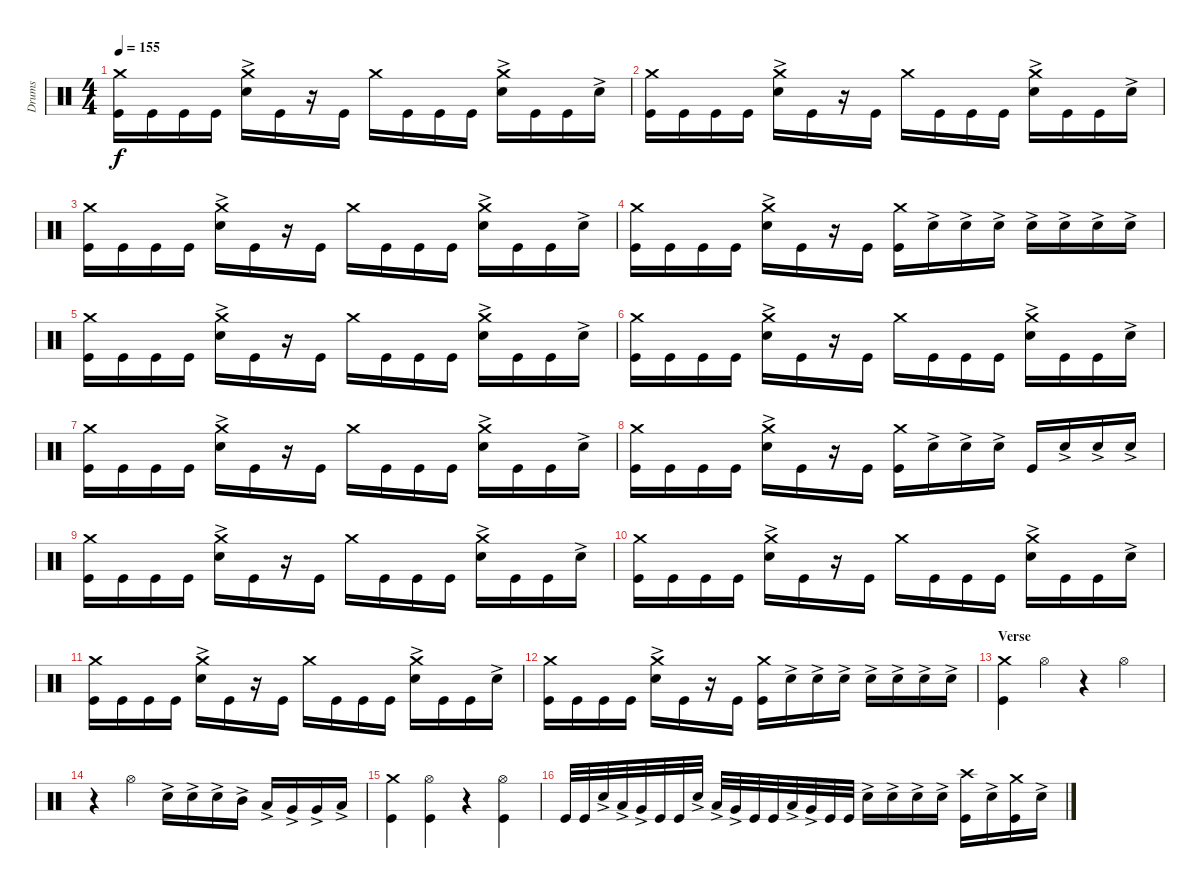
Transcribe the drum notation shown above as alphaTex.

\track ("Drums" "Drums") {instrument percussion}
\staff {score}
\articulation defaults
\ts (4 4)
\tempo 155
\clef neutral
\ks c
("Crash medium (hit)" "Kick (hit)").16{dy f} "Kick (hit)".16 "Kick (hit)".16 "Kick (hit)".16 ("Crash medium (hit)" "Snare (hit) 2"{ac}).16 "Kick (hit)".16 r.16 "Kick (hit)".16 "Crash medium (hit)".16 "Kick (hit)".16 "Kick (hit)".16 "Kick (hit)".16 ("Crash medium (hit)" "Snare (hit) 2"{ac}).16 "Kick (hit)".16 "Kick (hit)".16 "Snare (hit) 2"{ac}.16 |
("Crash medium (hit)" "Kick (hit)").16 "Kick (hit)".16 "Kick (hit)".16 "Kick (hit)".16 ("Crash medium (hit)" "Snare (hit) 2"{ac}).16 "Kick (hit)".16 r.16 "Kick (hit)".16 "Crash medium (hit)".16 "Kick (hit)".16 "Kick (hit)".16 "Kick (hit)".16 ("Crash medium (hit)" "Snare (hit) 2"{ac}).16 "Kick (hit)".16 "Kick (hit)".16 "Snare (hit) 2"{ac}.16 |
("Crash medium (hit)" "Kick (hit)").16 "Kick (hit)".16 "Kick (hit)".16 "Kick (hit)".16 ("Crash medium (hit)" "Snare (hit) 2"{ac}).16 "Kick (hit)".16 r.16 "Kick (hit)".16 "Crash medium (hit)".16 "Kick (hit)".16 "Kick (hit)".16 "Kick (hit)".16 ("Crash medium (hit)" "Snare (hit) 2"{ac}).16 "Kick (hit)".16 "Kick (hit)".16 "Snare (hit) 2"{ac}.16 |
("Crash medium (hit)" "Kick (hit)").16 "Kick (hit)".16 "Kick (hit)".16 "Kick (hit)".16 ("Crash medium (hit)" "Snare (hit) 2"{ac}).16 "Kick (hit)".16 r.16 "Kick (hit)".16 ("Kick (hit)" "Crash medium (hit)").16 "Snare (hit) 2"{ac}.16 "Snare (hit) 2"{ac}.16 "Snare (hit) 2"{ac}.16 "Snare (hit) 2"{ac}.16 "Snare (hit) 2"{ac}.16 "Snare (hit) 2"{ac}.16 "Snare (hit) 2"{ac}.16 |
("Crash medium (hit)" "Kick (hit)").16 "Kick (hit)".16 "Kick (hit)".16 "Kick (hit)".16 ("Crash medium (hit)" "Snare (hit) 2"{ac}).16 "Kick (hit)".16 r.16 "Kick (hit)".16 "Crash medium (hit)".16 "Kick (hit)".16 "Kick (hit)".16 "Kick (hit)".16 ("Crash medium (hit)" "Snare (hit) 2"{ac}).16 "Kick (hit)".16 "Kick (hit)".16 "Snare (hit) 2"{ac}.16 |
("Crash medium (hit)" "Kick (hit)").16 "Kick (hit)".16 "Kick (hit)".16 "Kick (hit)".16 ("Crash medium (hit)" "Snare (hit) 2"{ac}).16 "Kick (hit)".16 r.16 "Kick (hit)".16 "Crash medium (hit)".16 "Kick (hit)".16 "Kick (hit)".16 "Kick (hit)".16 ("Crash medium (hit)" "Snare (hit) 2"{ac}).16 "Kick (hit)".16 "Kick (hit)".16 "Snare (hit) 2"{ac}.16 |
("Crash medium (hit)" "Kick (hit)").16 "Kick (hit)".16 "Kick (hit)".16 "Kick (hit)".16 ("Crash medium (hit)" "Snare (hit) 2"{ac}).16 "Kick (hit)".16 r.16 "Kick (hit)".16 "Crash medium (hit)".16 "Kick (hit)".16 "Kick (hit)".16 "Kick (hit)".16 ("Crash medium (hit)" "Snare (hit) 2"{ac}).16 "Kick (hit)".16 "Kick (hit)".16 "Snare (hit) 2"{ac}.16 |
("Crash medium (hit)" "Kick (hit)").16 "Kick (hit)".16 "Kick (hit)".16 "Kick (hit)".16 ("Crash medium (hit)" "Snare (hit) 2"{ac}).16 "Kick (hit)".16 r.16 "Kick (hit)".16 ("Kick (hit)" "Crash medium (hit)").16 "Snare (hit) 2"{ac}.16 "Snare (hit) 2"{ac}.16 "Snare (hit) 2"{ac}.16 "Kick (hit)".16 "Snare (hit) 2"{ac}.16 "Snare (hit) 2"{ac}.16 "Snare (hit) 2"{ac}.16 |
("Crash medium (hit)" "Kick (hit)").16 "Kick (hit)".16 "Kick (hit)".16 "Kick (hit)".16 ("Crash medium (hit)" "Snare (hit) 2"{ac}).16 "Kick (hit)".16 r.16 "Kick (hit)".16 "Crash medium (hit)".16 "Kick (hit)".16 "Kick (hit)".16 "Kick (hit)".16 ("Crash medium (hit)" "Snare (hit) 2"{ac}).16 "Kick (hit)".16 "Kick (hit)".16 "Snare (hit) 2"{ac}.16 |
("Crash medium (hit)" "Kick (hit)").16 "Kick (hit)".16 "Kick (hit)".16 "Kick (hit)".16 ("Crash medium (hit)" "Snare (hit) 2"{ac}).16 "Kick (hit)".16 r.16 "Kick (hit)".16 "Crash medium (hit)".16 "Kick (hit)".16 "Kick (hit)".16 "Kick (hit)".16 ("Crash medium (hit)" "Snare (hit) 2"{ac}).16 "Kick (hit)".16 "Kick (hit)".16 "Snare (hit) 2"{ac}.16 |
("Crash medium (hit)" "Kick (hit)").16 "Kick (hit)".16 "Kick (hit)".16 "Kick (hit)".16 ("Crash medium (hit)" "Snare (hit) 2"{ac}).16 "Kick (hit)".16 r.16 "Kick (hit)".16 "Crash medium (hit)".16 "Kick (hit)".16 "Kick (hit)".16 "Kick (hit)".16 ("Crash medium (hit)" "Snare (hit) 2"{ac}).16 "Kick (hit)".16 "Kick (hit)".16 "Snare (hit) 2"{ac}.16 |
("Crash medium (hit)" "Kick (hit)").16 "Kick (hit)".16 "Kick (hit)".16 "Kick (hit)".16 ("Crash medium (hit)" "Snare (hit) 2"{ac}).16 "Kick (hit)".16 r.16 "Kick (hit)".16 ("Kick (hit)" "Crash medium (hit)").16 "Snare (hit) 2"{ac}.16 "Snare (hit) 2"{ac}.16 "Snare (hit) 2"{ac}.16 "Snare (hit) 2"{ac}.16 "Snare (hit) 2"{ac}.16 "Snare (hit) 2"{ac}.16 "Snare (hit) 2"{ac}.16 |
\section ("" "Verse")
("Kick (hit)" "Crash medium (hit)").4 "Hi-Hat (open)".4 r.4 "Hi-Hat (open)".4 |
r.4 "Hi-Hat (open)".4 "Snare (hit) 2"{ac}.16 "Snare (hit) 2"{ac}.16 "Snare (hit) 2"{ac}.16 "Mid Tom (hit)"{ac}.16 "Low Tom (hit)"{ac}.16 "Very Low Tom (hit)"{ac}.16 "Very Low Tom (hit)"{ac}.16 "Low Floor Tom (hit)"{ac}.16 |
("Kick (hit)" "Crash medium (hit)").4 ("Hi-Hat (open)" "Kick (hit)").4 r.4 ("Hi-Hat (open)" "Kick (hit)").4 |
"Kick (hit)".32 "Kick (hit)".32 "Snare (hit) 2"{ac}.32 "Low Tom (hit)"{ac}.32 "Very Low Tom (hit)"{ac}.32 "Kick (hit)".32 "Kick (hit)".32 "Snare (hit) 2"{ac}.32 "Low Tom (hit)"{ac}.32 "Very Low Tom (hit)"{ac}.32 "Kick (hit)".32 "Kick (hit)".32 "Low Tom (hit)"{ac}.32 "Very Low Tom (hit)"{ac}.32 "Kick (hit)".32 "Kick (hit)".32 "Snare (hit) 2"{ac}.16 "Snare (hit) 2"{ac}.16 "Snare (hit) 2"{ac}.16 "Snare (hit) 2"{ac}.16 ("Kick (hit)" "Crash high (hit)").16 "Snare (hit) 2"{ac}.16 ("Kick (hit)" "Crash medium (hit)").16 "Snare (hit) 2"{ac}.16
